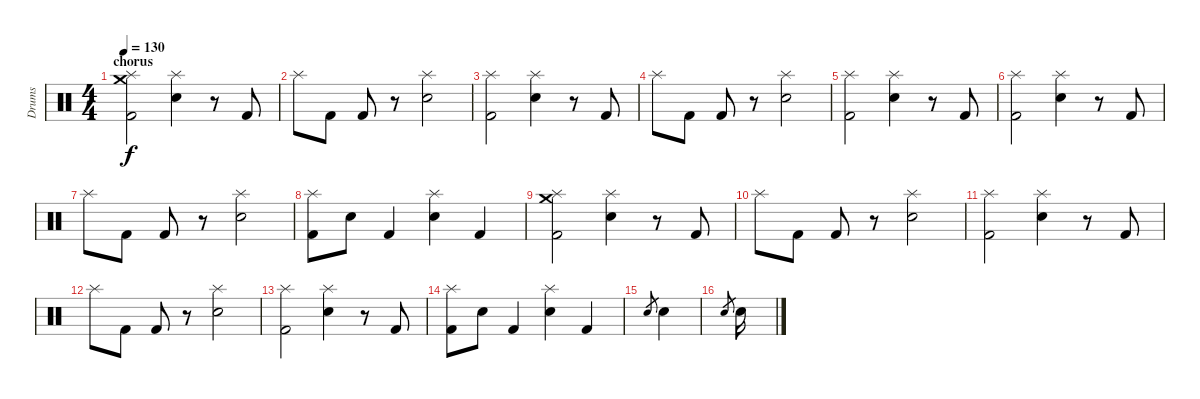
\track ("Drums" "Drums") {instrument percussion}
\staff {score}
\articulation defaults
\ts (4 4)
\section ("" "chorus")
\tempo 130
\clef neutral
\ks c
("Crash medium (hit)" "Splash (hit)" "Kick (hit) 2").2{dy f} ("Splash (hit)" "Electric Snare (hit)").4 r.8 "Kick (hit) 2".8 |
"Splash (hit)".8 "Kick (hit) 2".8 "Kick (hit) 2".8 r.8 ("Splash (hit)" "Electric Snare (hit)").2 |
("Splash (hit)" "Kick (hit) 2").2 ("Splash (hit)" "Electric Snare (hit)").4 r.8 "Kick (hit) 2".8 |
"Splash (hit)".8 "Kick (hit) 2".8 "Kick (hit) 2".8 r.8 ("Splash (hit)" "Electric Snare (hit)").2 |
("Splash (hit)" "Kick (hit) 2").2 ("Splash (hit)" "Electric Snare (hit)").4 r.8 "Kick (hit) 2".8 |
("Splash (hit)" "Kick (hit) 2").2 ("Splash (hit)" "Electric Snare (hit)").4 r.8 "Kick (hit) 2".8 |
"Splash (hit)".8 "Kick (hit) 2".8 "Kick (hit) 2".8 r.8 ("Splash (hit)" "Electric Snare (hit)").2 |
("Kick (hit) 2" "Splash (hit)").8 "Electric Snare (hit)".8 "Kick (hit) 2".4 ("Electric Snare (hit)" "Splash (hit)").4 "Kick (hit) 2".4 |
("Crash medium (hit)" "Splash (hit)" "Kick (hit) 2").2 ("Splash (hit)" "Electric Snare (hit)").4 r.8 "Kick (hit) 2".8 |
"Splash (hit)".8 "Kick (hit) 2".8 "Kick (hit) 2".8 r.8 ("Splash (hit)" "Electric Snare (hit)").2 |
("Splash (hit)" "Kick (hit) 2").2 ("Splash (hit)" "Electric Snare (hit)").4 r.8 "Kick (hit) 2".8 |
"Splash (hit)".8 "Kick (hit) 2".8 "Kick (hit) 2".8 r.8 ("Splash (hit)" "Electric Snare (hit)").2 |
("Splash (hit)" "Kick (hit) 2").2 ("Splash (hit)" "Electric Snare (hit)").4 r.8 "Kick (hit) 2".8 |
("Kick (hit) 2" "Splash (hit)").8 "Electric Snare (hit)".8 "Kick (hit) 2".4 ("Electric Snare (hit)" "Splash (hit)").4 "Kick (hit) 2".4 |
"Electric Snare (hit)".8{gr} "Electric Snare (hit)".4 |
"Electric Snare (hit)".8{gr} "Electric Snare (hit)".16
